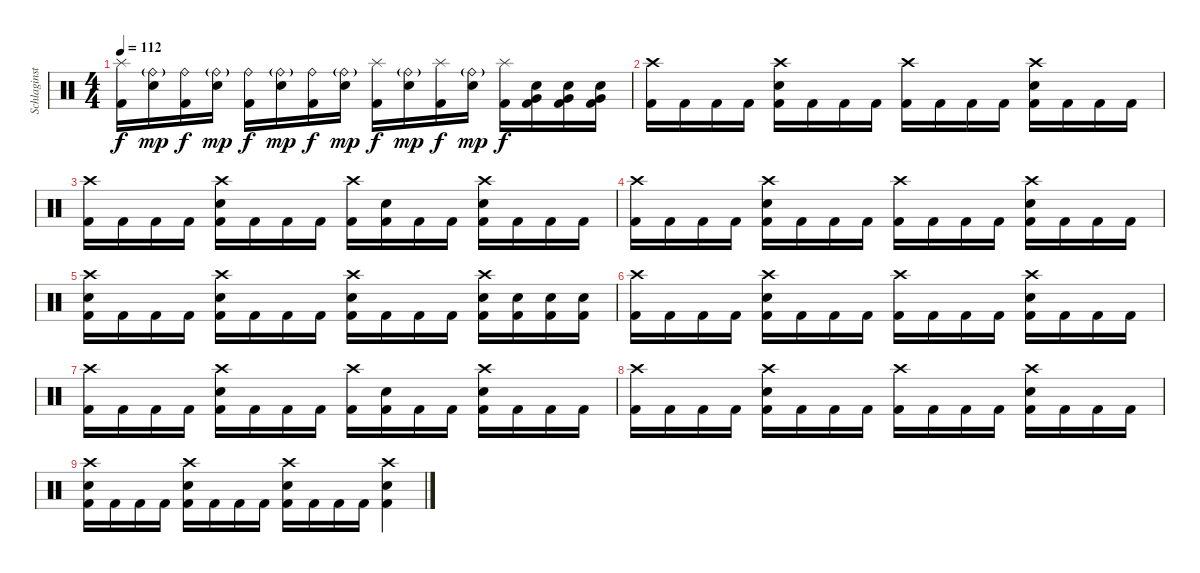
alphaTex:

\track ("Schlaginstrumente - Auswahl" "Schlaginst") {instrument percussion}
\staff {score}
\articulation defaults
\ts (4 4)
\tempo 112
\clef neutral
\ks c
("Splash (hit)" "Kick (hit) 2").16{dy f} ("Ride (bell)"{g} "Snare (hit) 2").16{dy mp} ("Ride (bell)" "Kick (hit) 2").16{dy f} ("Ride (bell)"{g} "Snare (hit) 2").16{dy mp} ("Ride (bell)" "Kick (hit) 2").16{dy f} ("Ride (bell)"{g} "Snare (hit) 2").16{dy mp} ("Ride (bell)" "Kick (hit) 2").16{dy f} ("Ride (bell)"{g} "Snare (hit) 2").16{dy mp} ("Splash (hit)" "Kick (hit) 2").16{dy f} ("Ride (bell)"{g} "Snare (hit) 2").16{dy mp} ("Splash (hit)" "Kick (hit) 2").16{dy f} ("Ride (bell)"{g} "Snare (hit) 2").16{dy mp} ("Splash (hit)" "Kick (hit) 2").16{dy f} ("Snare (hit) 2" "Very Low Tom (hit)" "Kick (hit) 2").16 ("Snare (hit) 2" "Very Low Tom (hit)" "Kick (hit) 2").16 ("Snare (hit) 2" "Very Low Tom (hit)" "Kick (hit) 2").16 |
("Crash high (hit)" "Kick (hit) 2").16 "Kick (hit) 2".16 "Kick (hit) 2".16 "Kick (hit) 2".16 ("Crash high (hit)" "Snare (hit) 2" "Kick (hit) 2").16 "Kick (hit) 2".16 "Kick (hit) 2".16 "Kick (hit) 2".16 ("Crash high (hit)" "Kick (hit) 2").16 "Kick (hit) 2".16 "Kick (hit) 2".16 "Kick (hit) 2".16 ("Crash high (hit)" "Snare (hit) 2" "Kick (hit) 2").16 "Kick (hit) 2".16 "Kick (hit) 2".16 "Kick (hit) 2".16 |
("Crash high (hit)" "Kick (hit) 2").16 "Kick (hit) 2".16 "Kick (hit) 2".16 "Kick (hit) 2".16 ("Crash high (hit)" "Snare (hit) 2" "Kick (hit) 2").16 "Kick (hit) 2".16 "Kick (hit) 2".16 "Kick (hit) 2".16 ("Crash high (hit)" "Kick (hit) 2").16 ("Snare (hit) 2" "Kick (hit) 2").16 "Kick (hit) 2".16 "Kick (hit) 2".16 ("Crash high (hit)" "Snare (hit) 2" "Kick (hit) 2").16 "Kick (hit) 2".16 "Kick (hit) 2".16 "Kick (hit) 2".16 |
("Crash high (hit)" "Kick (hit) 2").16 "Kick (hit) 2".16 "Kick (hit) 2".16 "Kick (hit) 2".16 ("Crash high (hit)" "Snare (hit) 2" "Kick (hit) 2").16 "Kick (hit) 2".16 "Kick (hit) 2".16 "Kick (hit) 2".16 ("Crash high (hit)" "Kick (hit) 2").16 "Kick (hit) 2".16 "Kick (hit) 2".16 "Kick (hit) 2".16 ("Crash high (hit)" "Snare (hit) 2" "Kick (hit) 2").16 "Kick (hit) 2".16 "Kick (hit) 2".16 "Kick (hit) 2".16 |
("Crash high (hit)" "Snare (hit) 2" "Kick (hit) 2").16 "Kick (hit) 2".16 "Kick (hit) 2".16 "Kick (hit) 2".16 ("Crash high (hit)" "Snare (hit) 2" "Kick (hit) 2").16 "Kick (hit) 2".16 "Kick (hit) 2".16 "Kick (hit) 2".16 ("Crash high (hit)" "Snare (hit) 2" "Kick (hit) 2").16 "Kick (hit) 2".16 "Kick (hit) 2".16 "Kick (hit) 2".16 ("Crash high (hit)" "Snare (hit) 2" "Kick (hit) 2").16 ("Snare (hit) 2" "Kick (hit) 2").16 ("Snare (hit) 2" "Kick (hit) 2").16 ("Snare (hit) 2" "Kick (hit) 2").16 |
("Crash high (hit)" "Kick (hit) 2").16 "Kick (hit) 2".16 "Kick (hit) 2".16 "Kick (hit) 2".16 ("Crash high (hit)" "Snare (hit) 2" "Kick (hit) 2").16 "Kick (hit) 2".16 "Kick (hit) 2".16 "Kick (hit) 2".16 ("Crash high (hit)" "Kick (hit) 2").16 "Kick (hit) 2".16 "Kick (hit) 2".16 "Kick (hit) 2".16 ("Crash high (hit)" "Snare (hit) 2" "Kick (hit) 2").16 "Kick (hit) 2".16 "Kick (hit) 2".16 "Kick (hit) 2".16 |
("Crash high (hit)" "Kick (hit) 2").16 "Kick (hit) 2".16 "Kick (hit) 2".16 "Kick (hit) 2".16 ("Crash high (hit)" "Snare (hit) 2" "Kick (hit) 2").16 "Kick (hit) 2".16 "Kick (hit) 2".16 "Kick (hit) 2".16 ("Crash high (hit)" "Kick (hit) 2").16 ("Snare (hit) 2" "Kick (hit) 2").16 "Kick (hit) 2".16 "Kick (hit) 2".16 ("Crash high (hit)" "Snare (hit) 2" "Kick (hit) 2").16 "Kick (hit) 2".16 "Kick (hit) 2".16 "Kick (hit) 2".16 |
("Crash high (hit)" "Kick (hit) 2").16 "Kick (hit) 2".16 "Kick (hit) 2".16 "Kick (hit) 2".16 ("Crash high (hit)" "Snare (hit) 2" "Kick (hit) 2").16 "Kick (hit) 2".16 "Kick (hit) 2".16 "Kick (hit) 2".16 ("Crash high (hit)" "Kick (hit) 2").16 "Kick (hit) 2".16 "Kick (hit) 2".16 "Kick (hit) 2".16 ("Crash high (hit)" "Snare (hit) 2" "Kick (hit) 2").16 "Kick (hit) 2".16 "Kick (hit) 2".16 "Kick (hit) 2".16 |
("Crash high (hit)" "Snare (hit) 2" "Kick (hit) 2").16 "Kick (hit) 2".16 "Kick (hit) 2".16 "Kick (hit) 2".16 ("Crash high (hit)" "Snare (hit) 2" "Kick (hit) 2").16 "Kick (hit) 2".16 "Kick (hit) 2".16 "Kick (hit) 2".16 ("Crash high (hit)" "Snare (hit) 2" "Kick (hit) 2").16 "Kick (hit) 2".16 "Kick (hit) 2".16 "Kick (hit) 2".16 ("Crash high (hit)" "Snare (hit) 2" "Kick (hit) 2").4
